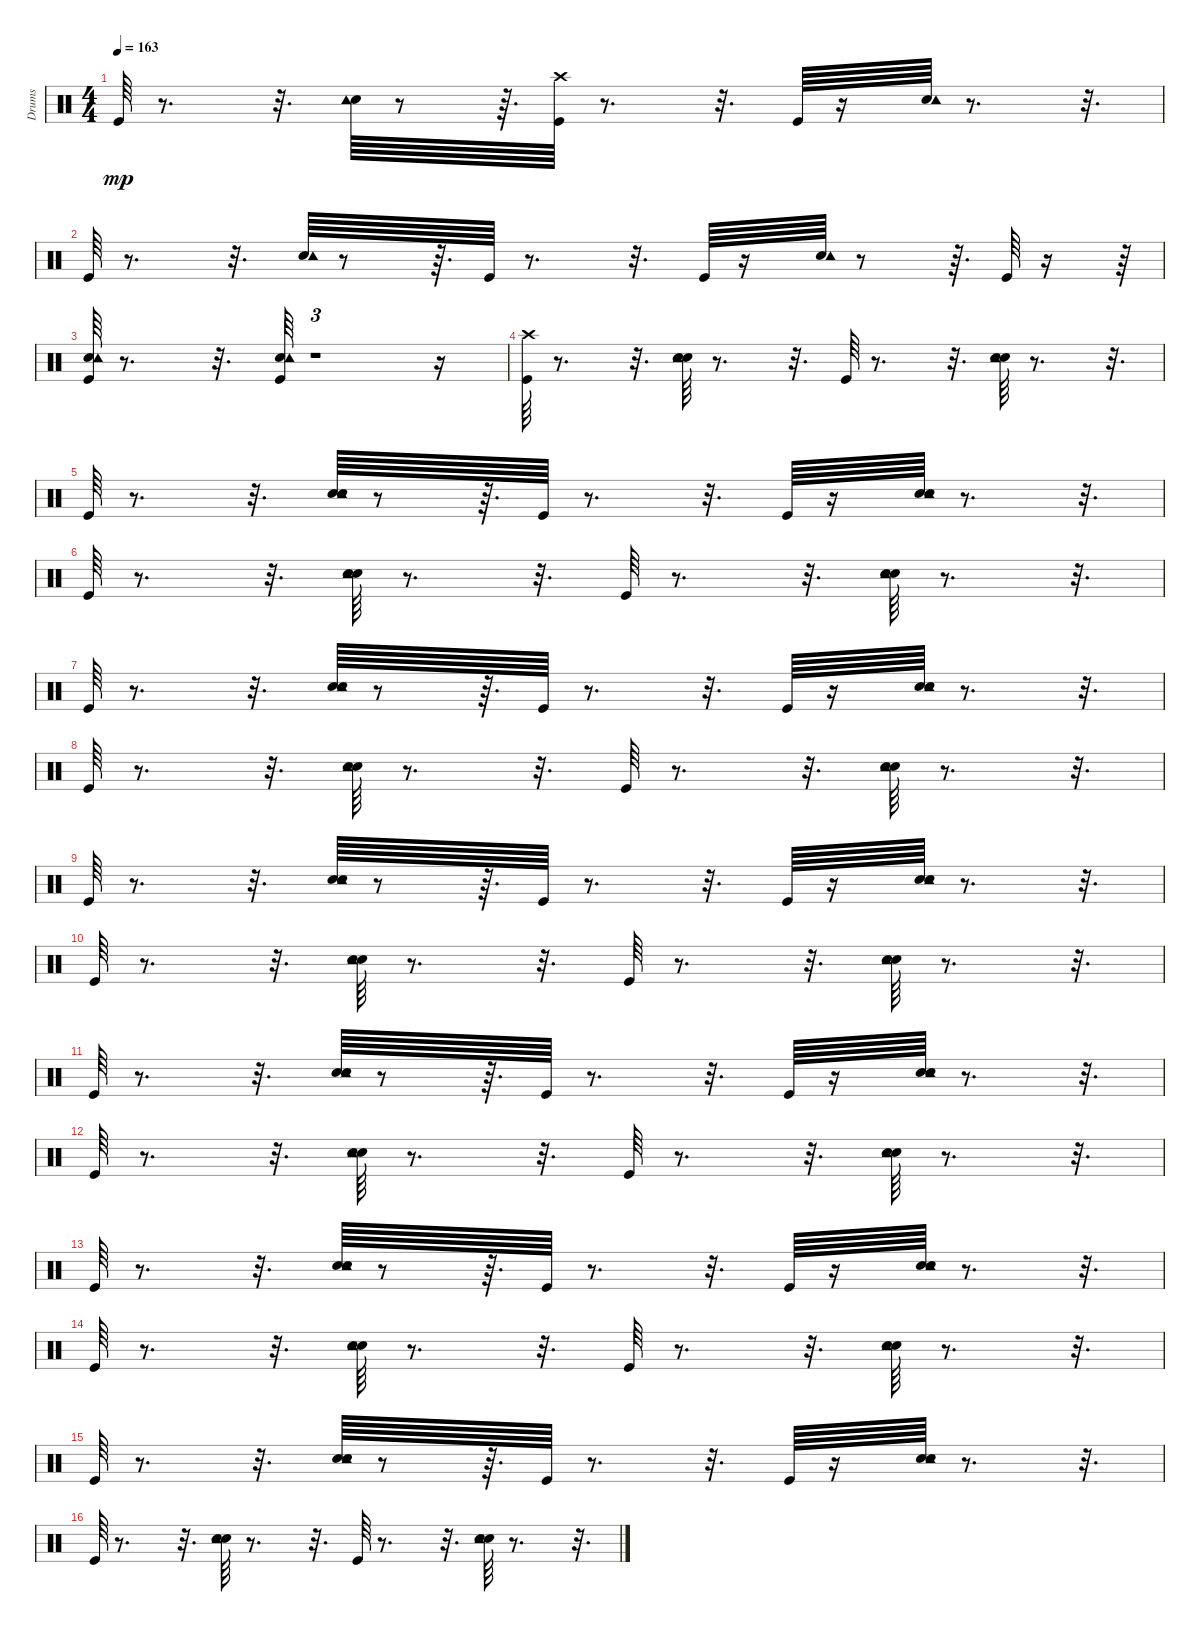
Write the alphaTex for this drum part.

\track ("Drums" "Drums") {instrument percussion}
\staff {score}
\articulation defaults
\ts (4 4)
\tempo 163
\clef neutral
\ks c "Kick (hit)".64{dy mp}
r.8{d} r.32{d} ("Snare (hit) 2" "Tambourine (hit)").64 r.8 r.64{d} ("Kick (hit)" "Crash high (hit)").64 r.8{d} r.32{d} "Kick (hit)".64 r.16 ("Snare (hit) 2" "Tambourine (hit)").64 r.8{d} r.32{d} |
"Kick (hit)".64 r.8{d} r.32{d} ("Snare (hit) 2" "Tambourine (hit)").64 r.8 r.64{d} "Kick (hit)".64 r.8{d} r.32{d} "Kick (hit)".64 r.16 ("Snare (hit) 2" "Tambourine (hit)").64 r.8 r.64{d} "Kick (hit)".64 r.16 r.64 |
("Kick (hit)" "Snare (hit) 2" "Tambourine (hit)").64 r.8{d} r.32{d} ("Kick (hit)" "Snare (hit) 2" "Tambourine (hit)").64 r.1{tu (3 2)} r.16 |
("Kick (hit)" "Crash high (hit)").64 r.8{d} r.32{d} ("Snare (hit) 2" "Tambourine (hit)" "Hand Clap (hit)").64 r.8{d} r.32{d} "Kick (hit)".64 r.8{d} r.32{d} ("Snare (hit) 2" "Tambourine (hit)" "Hand Clap (hit)").64 r.8{d} r.32{d} |
"Kick (hit)".64 r.8{d} r.32{d} ("Snare (hit) 2" "Tambourine (hit)" "Hand Clap (hit)").64 r.8 r.64{d} "Kick (hit)".64 r.8{d} r.32{d} "Kick (hit)".64 r.16 ("Snare (hit) 2" "Tambourine (hit)" "Hand Clap (hit)").64 r.8{d} r.32{d} |
"Kick (hit)".64 r.8{d} r.32{d} ("Snare (hit) 2" "Tambourine (hit)" "Hand Clap (hit)").64 r.8{d} r.32{d} "Kick (hit)".64 r.8{d} r.32{d} ("Snare (hit) 2" "Tambourine (hit)" "Hand Clap (hit)").64 r.8{d} r.32{d} |
"Kick (hit)".64 r.8{d} r.32{d} ("Snare (hit) 2" "Tambourine (hit)" "Hand Clap (hit)").64 r.8 r.64{d} "Kick (hit)".64 r.8{d} r.32{d} "Kick (hit)".64 r.16 ("Snare (hit) 2" "Tambourine (hit)" "Hand Clap (hit)").64 r.8{d} r.32{d} |
"Kick (hit)".64 r.8{d} r.32{d} ("Snare (hit) 2" "Tambourine (hit)" "Hand Clap (hit)").64 r.8{d} r.32{d} "Kick (hit)".64 r.8{d} r.32{d} ("Snare (hit) 2" "Tambourine (hit)" "Hand Clap (hit)").64 r.8{d} r.32{d} |
"Kick (hit)".64 r.8{d} r.32{d} ("Snare (hit) 2" "Tambourine (hit)" "Hand Clap (hit)").64 r.8 r.64{d} "Kick (hit)".64 r.8{d} r.32{d} "Kick (hit)".64 r.16 ("Snare (hit) 2" "Tambourine (hit)" "Hand Clap (hit)").64 r.8{d} r.32{d} |
"Kick (hit)".64 r.8{d} r.32{d} ("Snare (hit) 2" "Tambourine (hit)" "Hand Clap (hit)").64 r.8{d} r.32{d} "Kick (hit)".64 r.8{d} r.32{d} ("Snare (hit) 2" "Tambourine (hit)" "Hand Clap (hit)").64 r.8{d} r.32{d} |
"Kick (hit)".64 r.8{d} r.32{d} ("Snare (hit) 2" "Tambourine (hit)" "Hand Clap (hit)").64 r.8 r.64{d} "Kick (hit)".64 r.8{d} r.32{d} "Kick (hit)".64 r.16 ("Snare (hit) 2" "Tambourine (hit)" "Hand Clap (hit)").64 r.8{d} r.32{d} |
"Kick (hit)".64 r.8{d} r.32{d} ("Snare (hit) 2" "Tambourine (hit)" "Hand Clap (hit)").64 r.8{d} r.32{d} "Kick (hit)".64 r.8{d} r.32{d} ("Snare (hit) 2" "Tambourine (hit)" "Hand Clap (hit)").64 r.8{d} r.32{d} |
"Kick (hit)".64 r.8{d} r.32{d} ("Snare (hit) 2" "Tambourine (hit)" "Hand Clap (hit)").64 r.8 r.64{d} "Kick (hit)".64 r.8{d} r.32{d} "Kick (hit)".64 r.16 ("Snare (hit) 2" "Tambourine (hit)" "Hand Clap (hit)").64 r.8{d} r.32{d} |
"Kick (hit)".64 r.8{d} r.32{d} ("Snare (hit) 2" "Tambourine (hit)" "Hand Clap (hit)").64 r.8{d} r.32{d} "Kick (hit)".64 r.8{d} r.32{d} ("Snare (hit) 2" "Tambourine (hit)" "Hand Clap (hit)").64 r.8{d} r.32{d} |
"Kick (hit)".64 r.8{d} r.32{d} ("Snare (hit) 2" "Tambourine (hit)" "Hand Clap (hit)").64 r.8 r.64{d} "Kick (hit)".64 r.8{d} r.32{d} "Kick (hit)".64 r.16 ("Snare (hit) 2" "Tambourine (hit)" "Hand Clap (hit)").64 r.8{d} r.32{d} |
"Kick (hit)".64 r.8{d} r.32{d} ("Snare (hit) 2" "Tambourine (hit)" "Hand Clap (hit)").64 r.8{d} r.32{d} "Kick (hit)".64 r.8{d} r.32{d} ("Snare (hit) 2" "Tambourine (hit)" "Hand Clap (hit)").64 r.8{d} r.32{d}
